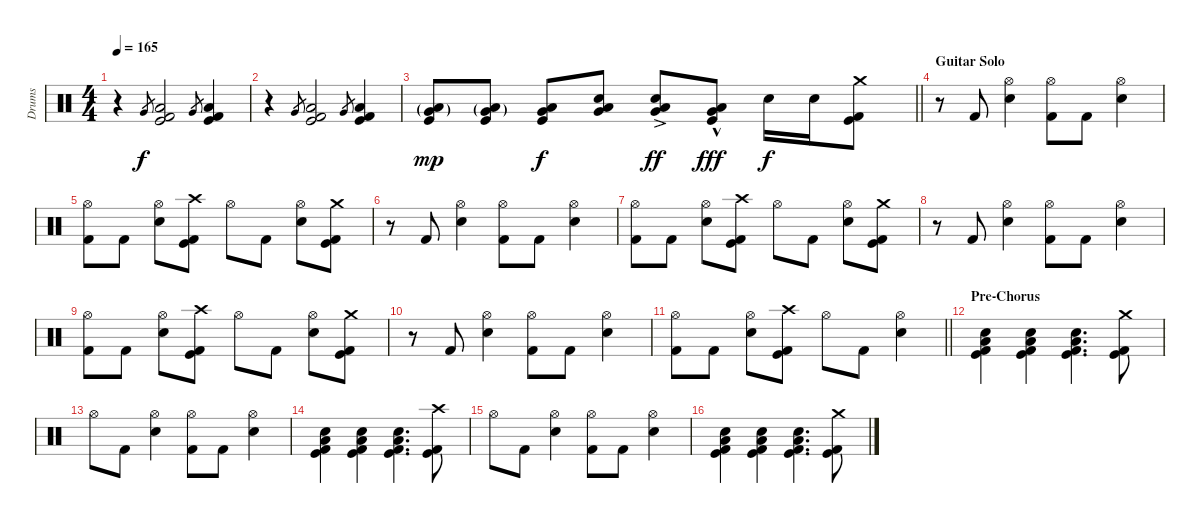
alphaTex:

\track ("Drums" "Drums") {instrument percussion}
\staff {score}
\articulation defaults
\ts (4 4)
\tempo 165
\clef neutral
\ks c
r.4{dy f} "Very Low Tom (hit)".8{gr} ("Low Floor Tom (hit)" "Kick (hit) 2" "Kick (hit)").2 "Very Low Tom (hit)".8{gr} ("Low Floor Tom (hit)" "Kick (hit) 2" "Kick (hit)").4 |
r.4 "Very Low Tom (hit)".8{gr} ("Low Floor Tom (hit)" "Kick (hit) 2" "Kick (hit)").2 "Very Low Tom (hit)".8{gr} ("Low Floor Tom (hit)" "Kick (hit) 2" "Kick (hit)").4 |
\barLineRight lightlight
("Low Floor Tom (hit)"{g} "Very Low Tom (hit)"{g} "Kick (hit)").8{dy mp} ("Low Floor Tom (hit)"{g} "Very Low Tom (hit)"{g} "Kick (hit)").8 ("Low Floor Tom (hit)" "Very Low Tom (hit)" "Kick (hit)").8{dy f} ("Low Floor Tom (hit)" "Very Low Tom (hit)" "Snare (hit)").8 ("Low Floor Tom (hit)"{ac} "Very Low Tom (hit)"{ac} "Snare (hit)").8{dy ff} ("Low Floor Tom (hit)"{hac} "Very Low Tom (hit)"{hac} "Kick (hit)").8{dy fff} "Electric Snare (hit)".16{dy f} "Electric Snare (hit)".16 ("Crash medium (hit)" "Kick (hit) 2" "Kick (hit)").8 |
\section ("" "Guitar Solo")
r.8 "Kick (hit) 2".8 ("Hi-Hat (open)" "Electric Snare (hit)").4 ("Hi-Hat (open)" "Kick (hit) 2").8 "Kick (hit) 2".8 ("Hi-Hat (open)" "Electric Snare (hit)").4 |
("Hi-Hat (open)" "Kick (hit) 2").8 "Kick (hit) 2".8 ("Hi-Hat (open)" "Electric Snare (hit)").8 ("Crash high (hit)" "Kick (hit) 2" "Kick (hit)").8 "Hi-Hat (open)".8 "Kick (hit) 2".8 ("Hi-Hat (open)" "Electric Snare (hit)").8 ("Crash medium (hit)" "Kick (hit) 2" "Kick (hit)").8 |
r.8 "Kick (hit) 2".8 ("Hi-Hat (open)" "Electric Snare (hit)").4 ("Hi-Hat (open)" "Kick (hit) 2").8 "Kick (hit) 2".8 ("Hi-Hat (open)" "Electric Snare (hit)").4 |
("Hi-Hat (open)" "Kick (hit) 2").8 "Kick (hit) 2".8 ("Hi-Hat (open)" "Electric Snare (hit)").8 ("Crash high (hit)" "Kick (hit) 2" "Kick (hit)").8 "Hi-Hat (open)".8 "Kick (hit) 2".8 ("Hi-Hat (open)" "Electric Snare (hit)").8 ("Crash medium (hit)" "Kick (hit) 2" "Kick (hit)").8 |
r.8 "Kick (hit) 2".8 ("Hi-Hat (open)" "Electric Snare (hit)").4 ("Hi-Hat (open)" "Kick (hit) 2").8 "Kick (hit) 2".8 ("Hi-Hat (open)" "Electric Snare (hit)").4 |
("Hi-Hat (open)" "Kick (hit) 2").8 "Kick (hit) 2".8 ("Hi-Hat (open)" "Electric Snare (hit)").8 ("Crash high (hit)" "Kick (hit) 2" "Kick (hit)").8 "Hi-Hat (open)".8 "Kick (hit) 2".8 ("Hi-Hat (open)" "Electric Snare (hit)").8 ("Crash medium (hit)" "Kick (hit) 2" "Kick (hit)").8 |
r.8 "Kick (hit) 2".8 ("Hi-Hat (open)" "Electric Snare (hit)").4 ("Hi-Hat (open)" "Kick (hit) 2").8 "Kick (hit) 2".8 ("Hi-Hat (open)" "Electric Snare (hit)").4 |
\barLineRight lightlight
("Hi-Hat (open)" "Kick (hit) 2").8 "Kick (hit) 2".8 ("Hi-Hat (open)" "Electric Snare (hit)").8 ("Crash high (hit)" "Kick (hit) 2" "Kick (hit)").8 "Hi-Hat (open)".8 "Kick (hit) 2".8 ("Hi-Hat (open)" "Electric Snare (hit)").4 |
\section ("" "Pre-Chorus")
("Electric Snare (hit)" "Kick (hit) 2" "Kick (hit)" "Low Floor Tom (hit)").4 ("Electric Snare (hit)" "Kick (hit) 2" "Kick (hit)" "Low Floor Tom (hit)").4 ("Electric Snare (hit)" "Kick (hit) 2" "Kick (hit)" "Low Floor Tom (hit)").4{d} ("Crash medium (hit)" "Kick (hit) 2" "Kick (hit)").8 |
"Hi-Hat (open)".8 "Kick (hit) 2".8 ("Hi-Hat (open)" "Electric Snare (hit)").4 ("Hi-Hat (open)" "Kick (hit) 2").8 "Kick (hit) 2".8 ("Hi-Hat (open)" "Electric Snare (hit)").4 |
("Electric Snare (hit)" "Kick (hit) 2" "Kick (hit)" "Low Floor Tom (hit)").4 ("Electric Snare (hit)" "Kick (hit) 2" "Kick (hit)" "Low Floor Tom (hit)").4 ("Electric Snare (hit)" "Kick (hit) 2" "Kick (hit)" "Low Floor Tom (hit)").4{d} ("Crash high (hit)" "Kick (hit) 2" "Kick (hit)").8 |
"Hi-Hat (open)".8 "Kick (hit) 2".8 ("Hi-Hat (open)" "Electric Snare (hit)").4 ("Hi-Hat (open)" "Kick (hit) 2").8 "Kick (hit) 2".8 ("Hi-Hat (open)" "Electric Snare (hit)").4 |
("Electric Snare (hit)" "Kick (hit) 2" "Kick (hit)" "Low Floor Tom (hit)").4 ("Electric Snare (hit)" "Kick (hit) 2" "Kick (hit)" "Low Floor Tom (hit)").4 ("Electric Snare (hit)" "Kick (hit) 2" "Kick (hit)" "Low Floor Tom (hit)").4{d} ("Crash medium (hit)" "Kick (hit) 2" "Kick (hit)").8
